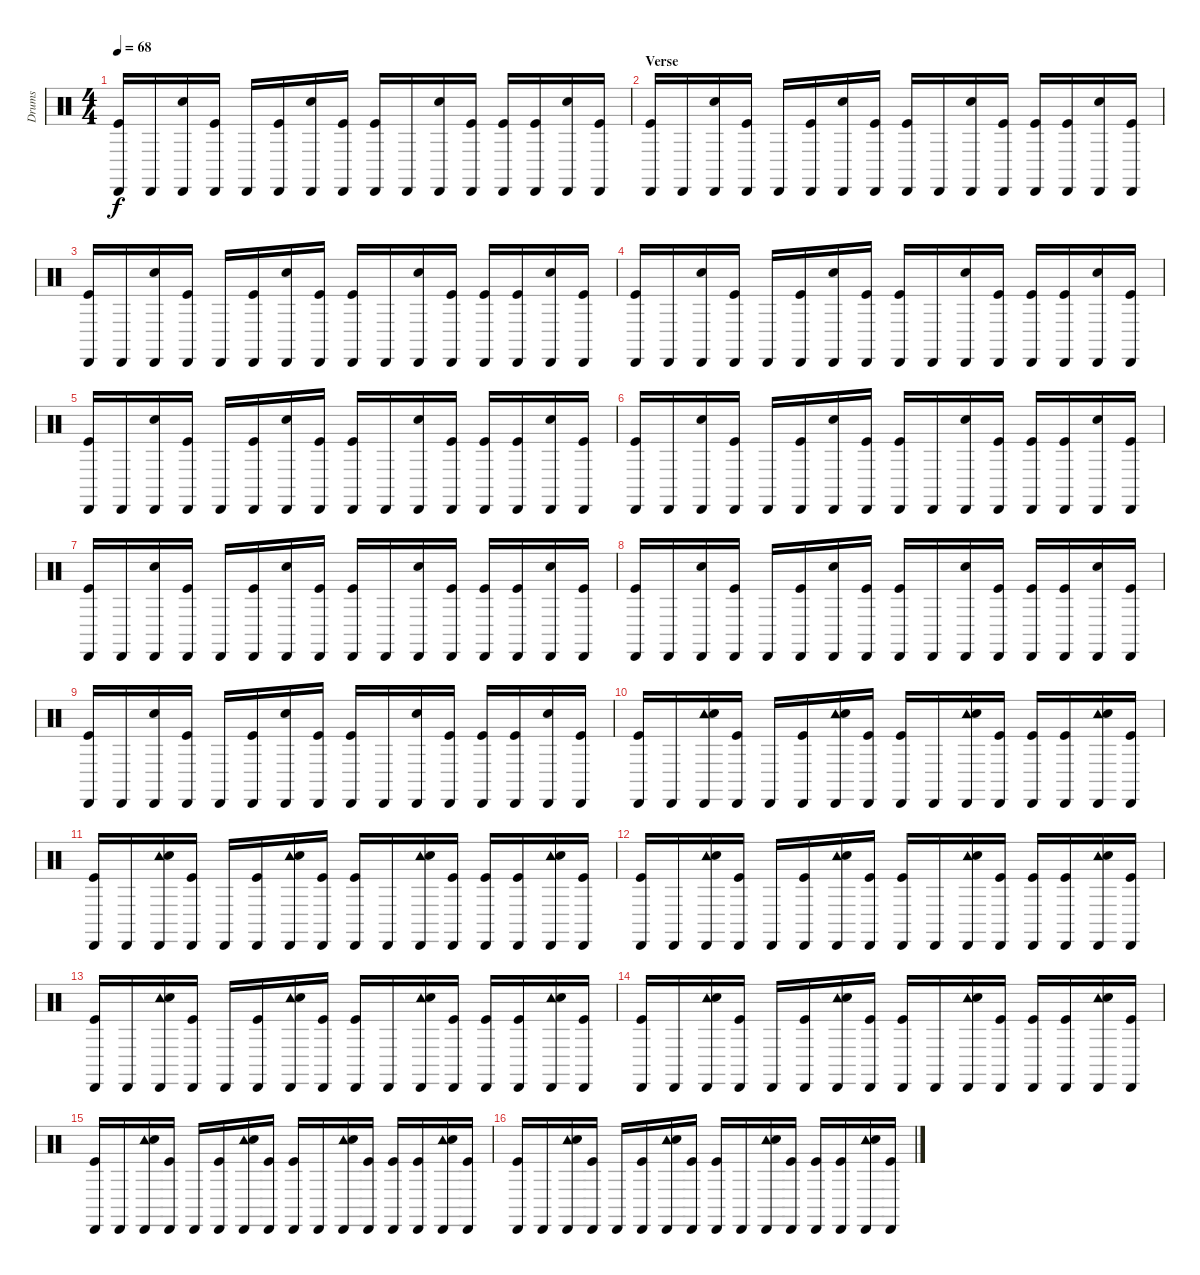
\track ("Drums" "Drums") {instrument percussion}
\staff {score}
\articulation defaults
\ts (4 4)
\tempo 68
\clef neutral
\ks c
("Cabasa (hit)" "Kick (hit)").16{dy f} "Cabasa (hit)".16 ("Cabasa (hit)" "Electric Snare (hit)").16 ("Cabasa (hit)" "Kick (hit)").16 "Cabasa (hit)".16 ("Cabasa (hit)" "Kick (hit)").16 ("Cabasa (hit)" "Electric Snare (hit)").16 ("Cabasa (hit)" "Kick (hit)").16 ("Cabasa (hit)" "Kick (hit)").16 "Cabasa (hit)".16 ("Cabasa (hit)" "Electric Snare (hit)").16 ("Cabasa (hit)" "Kick (hit)").16 ("Cabasa (hit)" "Kick (hit)").16 ("Cabasa (hit)" "Kick (hit)").16 ("Cabasa (hit)" "Electric Snare (hit)").16 ("Cabasa (hit)" "Kick (hit)").16 |
\section ("" "Verse")
("Cabasa (hit)" "Kick (hit)").16 "Cabasa (hit)".16 ("Cabasa (hit)" "Electric Snare (hit)").16 ("Cabasa (hit)" "Kick (hit)").16 "Cabasa (hit)".16 ("Cabasa (hit)" "Kick (hit)").16 ("Cabasa (hit)" "Electric Snare (hit)").16 ("Cabasa (hit)" "Kick (hit)").16 ("Cabasa (hit)" "Kick (hit)").16 "Cabasa (hit)".16 ("Cabasa (hit)" "Electric Snare (hit)").16 ("Cabasa (hit)" "Kick (hit)").16 ("Cabasa (hit)" "Kick (hit)").16 ("Cabasa (hit)" "Kick (hit)").16 ("Cabasa (hit)" "Electric Snare (hit)").16 ("Cabasa (hit)" "Kick (hit)").16 |
("Cabasa (hit)" "Kick (hit)").16 "Cabasa (hit)".16 ("Cabasa (hit)" "Electric Snare (hit)").16 ("Cabasa (hit)" "Kick (hit)").16 "Cabasa (hit)".16 ("Cabasa (hit)" "Kick (hit)").16 ("Cabasa (hit)" "Electric Snare (hit)").16 ("Cabasa (hit)" "Kick (hit)").16 ("Cabasa (hit)" "Kick (hit)").16 "Cabasa (hit)".16 ("Cabasa (hit)" "Electric Snare (hit)").16 ("Cabasa (hit)" "Kick (hit)").16 ("Cabasa (hit)" "Kick (hit)").16 ("Cabasa (hit)" "Kick (hit)").16 ("Cabasa (hit)" "Electric Snare (hit)").16 ("Cabasa (hit)" "Kick (hit)").16 |
("Cabasa (hit)" "Kick (hit)").16 "Cabasa (hit)".16 ("Cabasa (hit)" "Electric Snare (hit)").16 ("Cabasa (hit)" "Kick (hit)").16 "Cabasa (hit)".16 ("Cabasa (hit)" "Kick (hit)").16 ("Cabasa (hit)" "Electric Snare (hit)").16 ("Cabasa (hit)" "Kick (hit)").16 ("Cabasa (hit)" "Kick (hit)").16 "Cabasa (hit)".16 ("Cabasa (hit)" "Electric Snare (hit)").16 ("Cabasa (hit)" "Kick (hit)").16 ("Cabasa (hit)" "Kick (hit)").16 ("Cabasa (hit)" "Kick (hit)").16 ("Cabasa (hit)" "Electric Snare (hit)").16 ("Cabasa (hit)" "Kick (hit)").16 |
("Cabasa (hit)" "Kick (hit)").16 "Cabasa (hit)".16 ("Cabasa (hit)" "Electric Snare (hit)").16 ("Cabasa (hit)" "Kick (hit)").16 "Cabasa (hit)".16 ("Cabasa (hit)" "Kick (hit)").16 ("Cabasa (hit)" "Electric Snare (hit)").16 ("Cabasa (hit)" "Kick (hit)").16 ("Cabasa (hit)" "Kick (hit)").16 "Cabasa (hit)".16 ("Cabasa (hit)" "Electric Snare (hit)").16 ("Cabasa (hit)" "Kick (hit)").16 ("Cabasa (hit)" "Kick (hit)").16 ("Cabasa (hit)" "Kick (hit)").16 ("Cabasa (hit)" "Electric Snare (hit)").16 ("Cabasa (hit)" "Kick (hit)").16 |
("Cabasa (hit)" "Kick (hit)").16 "Cabasa (hit)".16 ("Cabasa (hit)" "Electric Snare (hit)").16 ("Cabasa (hit)" "Kick (hit)").16 "Cabasa (hit)".16 ("Cabasa (hit)" "Kick (hit)").16 ("Cabasa (hit)" "Electric Snare (hit)").16 ("Cabasa (hit)" "Kick (hit)").16 ("Cabasa (hit)" "Kick (hit)").16 "Cabasa (hit)".16 ("Cabasa (hit)" "Electric Snare (hit)").16 ("Cabasa (hit)" "Kick (hit)").16 ("Cabasa (hit)" "Kick (hit)").16 ("Cabasa (hit)" "Kick (hit)").16 ("Cabasa (hit)" "Electric Snare (hit)").16 ("Cabasa (hit)" "Kick (hit)").16 |
("Cabasa (hit)" "Kick (hit)").16 "Cabasa (hit)".16 ("Cabasa (hit)" "Electric Snare (hit)").16 ("Cabasa (hit)" "Kick (hit)").16 "Cabasa (hit)".16 ("Cabasa (hit)" "Kick (hit)").16 ("Cabasa (hit)" "Electric Snare (hit)").16 ("Cabasa (hit)" "Kick (hit)").16 ("Cabasa (hit)" "Kick (hit)").16 "Cabasa (hit)".16 ("Cabasa (hit)" "Electric Snare (hit)").16 ("Cabasa (hit)" "Kick (hit)").16 ("Cabasa (hit)" "Kick (hit)").16 ("Cabasa (hit)" "Kick (hit)").16 ("Cabasa (hit)" "Electric Snare (hit)").16 ("Cabasa (hit)" "Kick (hit)").16 |
("Cabasa (hit)" "Kick (hit)").16 "Cabasa (hit)".16 ("Cabasa (hit)" "Electric Snare (hit)").16 ("Cabasa (hit)" "Kick (hit)").16 "Cabasa (hit)".16 ("Cabasa (hit)" "Kick (hit)").16 ("Cabasa (hit)" "Electric Snare (hit)").16 ("Cabasa (hit)" "Kick (hit)").16 ("Cabasa (hit)" "Kick (hit)").16 "Cabasa (hit)".16 ("Cabasa (hit)" "Electric Snare (hit)").16 ("Cabasa (hit)" "Kick (hit)").16 ("Cabasa (hit)" "Kick (hit)").16 ("Cabasa (hit)" "Kick (hit)").16 ("Cabasa (hit)" "Electric Snare (hit)").16 ("Cabasa (hit)" "Kick (hit)").16 |
("Cabasa (hit)" "Kick (hit)").16 "Cabasa (hit)".16 ("Cabasa (hit)" "Electric Snare (hit)").16 ("Cabasa (hit)" "Kick (hit)").16 "Cabasa (hit)".16 ("Cabasa (hit)" "Kick (hit)").16 ("Cabasa (hit)" "Electric Snare (hit)").16 ("Cabasa (hit)" "Kick (hit)").16 ("Cabasa (hit)" "Kick (hit)").16 "Cabasa (hit)".16 ("Cabasa (hit)" "Electric Snare (hit)").16 ("Cabasa (hit)" "Kick (hit)").16 ("Cabasa (hit)" "Kick (hit)").16 ("Cabasa (hit)" "Kick (hit)").16 ("Cabasa (hit)" "Electric Snare (hit)").16 ("Cabasa (hit)" "Kick (hit)").16 |
("Cabasa (hit)" "Kick (hit)").16 "Cabasa (hit)".16 ("Cabasa (hit)" "Tambourine (hit)" "Electric Snare (hit)").16 ("Cabasa (hit)" "Kick (hit)").16 "Cabasa (hit)".16 ("Cabasa (hit)" "Kick (hit)").16 ("Cabasa (hit)" "Tambourine (hit)" "Electric Snare (hit)").16 ("Cabasa (hit)" "Kick (hit)").16 ("Cabasa (hit)" "Kick (hit)").16 "Cabasa (hit)".16 ("Cabasa (hit)" "Tambourine (hit)" "Electric Snare (hit)").16 ("Cabasa (hit)" "Kick (hit)").16 ("Cabasa (hit)" "Kick (hit)").16 ("Cabasa (hit)" "Kick (hit)").16 ("Cabasa (hit)" "Tambourine (hit)" "Electric Snare (hit)").16 ("Cabasa (hit)" "Kick (hit)").16 |
("Cabasa (hit)" "Kick (hit)").16 "Cabasa (hit)".16 ("Cabasa (hit)" "Tambourine (hit)" "Electric Snare (hit)").16 ("Cabasa (hit)" "Kick (hit)").16 "Cabasa (hit)".16 ("Cabasa (hit)" "Kick (hit)").16 ("Cabasa (hit)" "Tambourine (hit)" "Electric Snare (hit)").16 ("Cabasa (hit)" "Kick (hit)").16 ("Cabasa (hit)" "Kick (hit)").16 "Cabasa (hit)".16 ("Cabasa (hit)" "Tambourine (hit)" "Electric Snare (hit)").16 ("Cabasa (hit)" "Kick (hit)").16 ("Cabasa (hit)" "Kick (hit)").16 ("Cabasa (hit)" "Kick (hit)").16 ("Cabasa (hit)" "Tambourine (hit)" "Electric Snare (hit)").16 ("Cabasa (hit)" "Kick (hit)").16 |
("Cabasa (hit)" "Kick (hit)").16 "Cabasa (hit)".16 ("Cabasa (hit)" "Tambourine (hit)" "Electric Snare (hit)").16 ("Cabasa (hit)" "Kick (hit)").16 "Cabasa (hit)".16 ("Cabasa (hit)" "Kick (hit)").16 ("Cabasa (hit)" "Tambourine (hit)" "Electric Snare (hit)").16 ("Cabasa (hit)" "Kick (hit)").16 ("Cabasa (hit)" "Kick (hit)").16 "Cabasa (hit)".16 ("Cabasa (hit)" "Tambourine (hit)" "Electric Snare (hit)").16 ("Cabasa (hit)" "Kick (hit)").16 ("Cabasa (hit)" "Kick (hit)").16 ("Cabasa (hit)" "Kick (hit)").16 ("Cabasa (hit)" "Tambourine (hit)" "Electric Snare (hit)").16 ("Cabasa (hit)" "Kick (hit)").16 |
("Cabasa (hit)" "Kick (hit)").16 "Cabasa (hit)".16 ("Cabasa (hit)" "Tambourine (hit)" "Electric Snare (hit)").16 ("Cabasa (hit)" "Kick (hit)").16 "Cabasa (hit)".16 ("Cabasa (hit)" "Kick (hit)").16 ("Cabasa (hit)" "Tambourine (hit)" "Electric Snare (hit)").16 ("Cabasa (hit)" "Kick (hit)").16 ("Cabasa (hit)" "Kick (hit)").16 "Cabasa (hit)".16 ("Cabasa (hit)" "Tambourine (hit)" "Electric Snare (hit)").16 ("Cabasa (hit)" "Kick (hit)").16 ("Cabasa (hit)" "Kick (hit)").16 ("Cabasa (hit)" "Kick (hit)").16 ("Cabasa (hit)" "Tambourine (hit)" "Electric Snare (hit)").16 ("Cabasa (hit)" "Kick (hit)").16 |
("Cabasa (hit)" "Kick (hit)").16 "Cabasa (hit)".16 ("Cabasa (hit)" "Tambourine (hit)" "Electric Snare (hit)").16 ("Cabasa (hit)" "Kick (hit)").16 "Cabasa (hit)".16 ("Cabasa (hit)" "Kick (hit)").16 ("Cabasa (hit)" "Tambourine (hit)" "Electric Snare (hit)").16 ("Cabasa (hit)" "Kick (hit)").16 ("Cabasa (hit)" "Kick (hit)").16 "Cabasa (hit)".16 ("Cabasa (hit)" "Tambourine (hit)" "Electric Snare (hit)").16 ("Cabasa (hit)" "Kick (hit)").16 ("Cabasa (hit)" "Kick (hit)").16 ("Cabasa (hit)" "Kick (hit)").16 ("Cabasa (hit)" "Tambourine (hit)" "Electric Snare (hit)").16 ("Cabasa (hit)" "Kick (hit)").16 |
("Cabasa (hit)" "Kick (hit)").16 "Cabasa (hit)".16 ("Cabasa (hit)" "Tambourine (hit)" "Electric Snare (hit)").16 ("Cabasa (hit)" "Kick (hit)").16 "Cabasa (hit)".16 ("Cabasa (hit)" "Kick (hit)").16 ("Cabasa (hit)" "Tambourine (hit)" "Electric Snare (hit)").16 ("Cabasa (hit)" "Kick (hit)").16 ("Cabasa (hit)" "Kick (hit)").16 "Cabasa (hit)".16 ("Cabasa (hit)" "Tambourine (hit)" "Electric Snare (hit)").16 ("Cabasa (hit)" "Kick (hit)").16 ("Cabasa (hit)" "Kick (hit)").16 ("Cabasa (hit)" "Kick (hit)").16 ("Cabasa (hit)" "Tambourine (hit)" "Electric Snare (hit)").16 ("Cabasa (hit)" "Kick (hit)").16 |
("Cabasa (hit)" "Kick (hit)").16 "Cabasa (hit)".16 ("Cabasa (hit)" "Tambourine (hit)" "Electric Snare (hit)").16 ("Cabasa (hit)" "Kick (hit)").16 "Cabasa (hit)".16 ("Cabasa (hit)" "Kick (hit)").16 ("Cabasa (hit)" "Tambourine (hit)" "Electric Snare (hit)").16 ("Cabasa (hit)" "Kick (hit)").16 ("Cabasa (hit)" "Kick (hit)").16 "Cabasa (hit)".16 ("Cabasa (hit)" "Tambourine (hit)" "Electric Snare (hit)").16 ("Cabasa (hit)" "Kick (hit)").16 ("Cabasa (hit)" "Kick (hit)").16 ("Cabasa (hit)" "Kick (hit)").16 ("Cabasa (hit)" "Tambourine (hit)" "Electric Snare (hit)").16 ("Cabasa (hit)" "Kick (hit)").16
